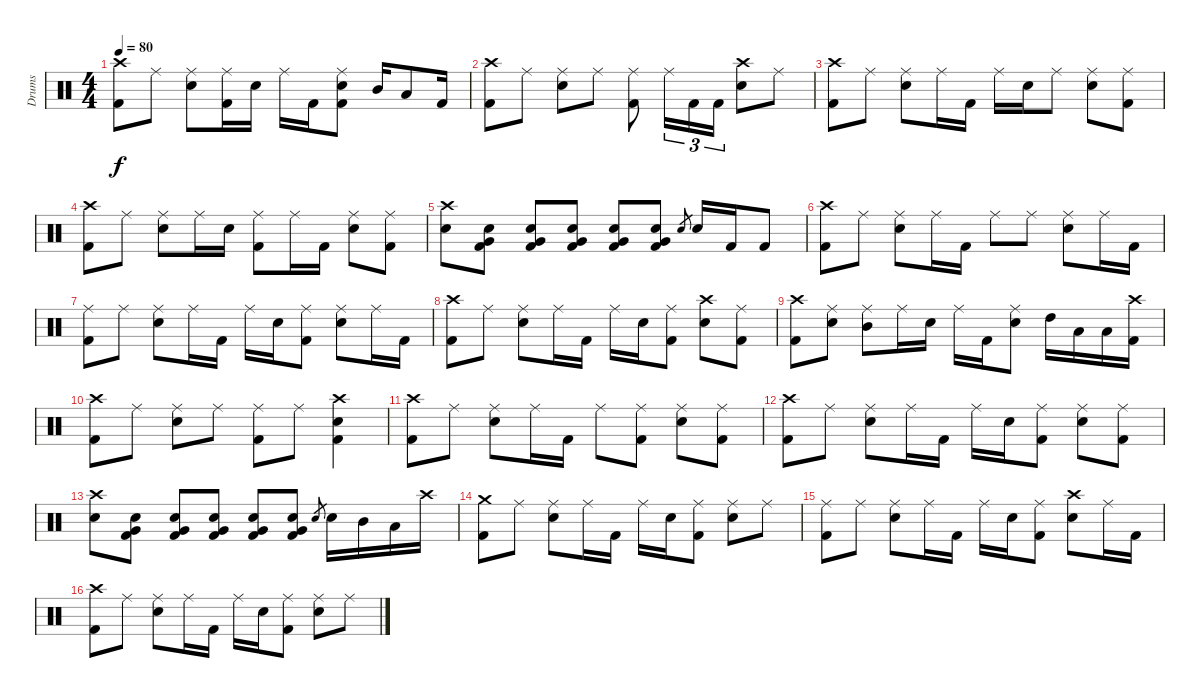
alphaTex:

\track ("Drums" "Drums") {instrument percussion}
\staff {score}
\articulation defaults
\ts (4 4)
\tempo 80
\clef neutral
\ks c
("Crash high (hit)" "Kick (hit) 2").8{dy f} "Ride (middle)".8 ("Ride (middle)" "Electric Snare (hit)").8 ("Ride (middle)" "Kick (hit) 2").16 "Electric Snare (hit)".16 "Ride (middle)".16 "Kick (hit) 2".16 ("Ride (middle)" "Electric Snare (hit)" "Kick (hit) 2").8 "Mid Tom (hit)".16 "Low Tom (hit)".8 "Kick (hit) 2".16 |
("Crash high (hit)" "Kick (hit) 2").8 "Ride (middle)".8 ("Ride (middle)" "Electric Snare (hit)").8 "Ride (middle)".8 ("Ride (middle)" "Kick (hit) 2").8 "Ride (middle)".16{tu (3 2)} "Kick (hit) 2".16{tu (3 2)} "Kick (hit) 2".16{tu (3 2)} ("Crash high (hit)" "Electric Snare (hit)").8 "Ride (middle)".8 |
("Crash high (hit)" "Kick (hit) 2").8 "Ride (middle)".8 ("Ride (middle)" "Electric Snare (hit)").8 "Ride (middle)".16 "Kick (hit) 2".16 "Ride (middle)".16 "Electric Snare (hit)".16 "Ride (middle)".8 ("Ride (middle)" "Electric Snare (hit)").8 ("Ride (middle)" "Kick (hit) 2").8 |
("Crash high (hit)" "Kick (hit) 2").8 "Ride (middle)".8 ("Ride (middle)" "Electric Snare (hit)").8 "Ride (middle)".16 "Electric Snare (hit)".16 ("Ride (middle)" "Kick (hit) 2").8 "Ride (middle)".16 "Kick (hit) 2".16 ("Ride (middle)" "Electric Snare (hit)").8 ("Ride (middle)" "Kick (hit) 2").8 |
("Crash high (hit)" "Electric Snare (hit)").8 ("Electric Snare (hit)" "Very Low Tom (hit)" "Kick (hit) 2").8 ("Electric Snare (hit)" "Very Low Tom (hit)" "Kick (hit) 2").8 ("Electric Snare (hit)" "Very Low Tom (hit)" "Kick (hit) 2").8 ("Electric Snare (hit)" "Very Low Tom (hit)" "Kick (hit) 2").8 ("Electric Snare (hit)" "Very Low Tom (hit)" "Kick (hit) 2").8 "Electric Snare (hit)".8{gr} "Electric Snare (hit)".16 "Kick (hit) 2".16 "Kick (hit) 2".8 |
("Crash high (hit)" "Kick (hit) 2").8 "Ride (middle)".8 ("Ride (middle)" "Electric Snare (hit)").8 "Ride (middle)".16 "Kick (hit) 2".16 "Ride (middle)".8 "Ride (middle)".8 ("Ride (middle)" "Electric Snare (hit)").8 "Ride (middle)".16 "Kick (hit) 2".16 |
("Ride (middle)" "Kick (hit) 2").8 "Ride (middle)".8 ("Ride (middle)" "Electric Snare (hit)").8 "Ride (middle)".16 "Kick (hit) 2".16 "Ride (middle)".16 "Electric Snare (hit)".16 ("Ride (middle)" "Kick (hit) 2").8 ("Ride (middle)" "Electric Snare (hit)").8 "Ride (middle)".16 "Kick (hit) 2".16 |
("Crash high (hit)" "Kick (hit) 2").8 "Ride (middle)".8 ("Ride (middle)" "Electric Snare (hit)").8 "Ride (middle)".16 "Kick (hit) 2".16 "Ride (middle)".16 "Electric Snare (hit)".16 ("Ride (middle)" "Kick (hit) 2").8 ("Crash high (hit)" "Electric Snare (hit)").8 ("Ride (middle)" "Kick (hit) 2").8 |
("Crash high (hit)" "Kick (hit) 2").8 ("Ride (middle)" "Electric Snare (hit)").8 ("Ride (middle)" "Mid Tom (hit)").8 "Ride (middle)".16 "Electric Snare (hit)".16 "Ride (middle)".16 "Kick (hit) 2".16 ("Ride (middle)" "Electric Snare (hit)").8 "High Tom (hit)".16 "Low Tom (hit)".16 "Low Tom (hit)".16 ("Crash high (hit)" "Kick (hit) 2").16 |
("Crash high (hit)" "Kick (hit) 2").8 "Ride (middle)".8 ("Ride (middle)" "Electric Snare (hit)").8 "Ride (middle)".8 ("Ride (middle)" "Kick (hit) 2").8 "Ride (middle)".8 ("Crash high (hit)" "Electric Snare (hit)" "Kick (hit) 2").4 |
("Crash high (hit)" "Kick (hit) 2").8 "Ride (middle)".8 ("Ride (middle)" "Electric Snare (hit)").8 "Ride (middle)".16 "Kick (hit) 2".16 "Ride (middle)".8 ("Ride (middle)" "Kick (hit) 2").8 ("Ride (middle)" "Electric Snare (hit)").8 ("Ride (middle)" "Kick (hit) 2").8 |
("Crash high (hit)" "Kick (hit) 2").8 "Ride (middle)".8 ("Ride (middle)" "Electric Snare (hit)").8 "Ride (middle)".16 "Kick (hit) 2".16 "Ride (middle)".16 "Electric Snare (hit)".16 ("Ride (middle)" "Kick (hit) 2").8 ("Ride (middle)" "Electric Snare (hit)").8 ("Ride (middle)" "Kick (hit) 2").8 |
("Crash high (hit)" "Electric Snare (hit)").8 ("Electric Snare (hit)" "Very Low Tom (hit)" "Kick (hit) 2").8 ("Electric Snare (hit)" "Very Low Tom (hit)" "Kick (hit) 2").8 ("Electric Snare (hit)" "Very Low Tom (hit)" "Kick (hit) 2").8 ("Electric Snare (hit)" "Very Low Tom (hit)" "Kick (hit) 2").8 ("Electric Snare (hit)" "Very Low Tom (hit)" "Kick (hit) 2").8 "Electric Snare (hit)".8{gr} "Electric Snare (hit)".16 "Mid Tom (hit)".16 "Low Tom (hit)".16 "Crash high (hit)".16 |
("Crash medium (hit)" "Kick (hit) 2").8 "Ride (middle)".8 ("Ride (middle)" "Electric Snare (hit)").8 "Ride (middle)".16 "Kick (hit) 2".16 "Ride (middle)".16 "Electric Snare (hit)".16 ("Ride (middle)" "Kick (hit) 2").8 ("Ride (middle)" "Electric Snare (hit)").8 "Ride (middle)".8 |
("Ride (middle)" "Kick (hit) 2").8 "Ride (middle)".8 ("Ride (middle)" "Electric Snare (hit)").8 "Ride (middle)".16 "Kick (hit) 2".16 "Ride (middle)".16 "Electric Snare (hit)".16 ("Ride (middle)" "Kick (hit) 2").8 ("Crash high (hit)" "Electric Snare (hit)").8 "Ride (middle)".16 "Kick (hit) 2".16 |
("Crash high (hit)" "Kick (hit) 2").8 "Ride (middle)".8 ("Ride (middle)" "Electric Snare (hit)").8 "Ride (middle)".16 "Kick (hit) 2".16 "Ride (middle)".16 "Electric Snare (hit)".16 ("Ride (middle)" "Kick (hit) 2").8 ("Ride (middle)" "Electric Snare (hit)").8 "Ride (middle)".8
